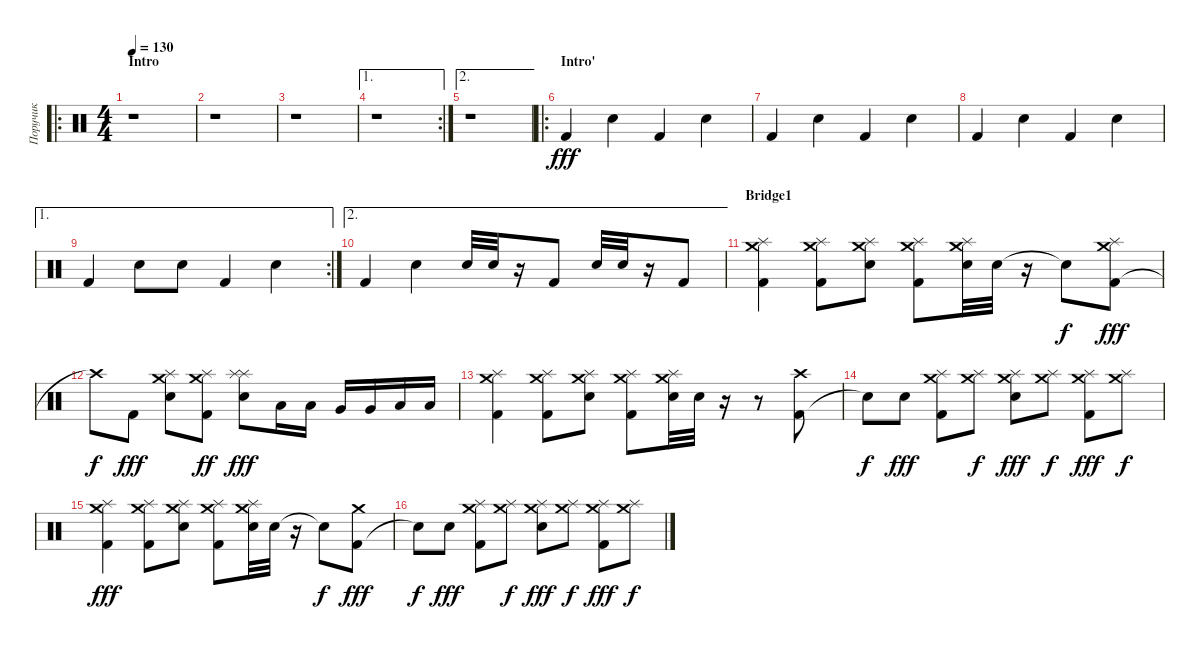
\track ("Поручик" "Поручик") {instrument percussion}
\staff {score}
\articulation defaults
\ro
\ts (4 4)
\section ("" "Intro")
\tempo 130
\clef neutral
\ks c
r.1{dy fff} |
r.1 |
r.1 |
\ae 1
\rc 2
r.1 |
\ae 2
r.1 |
\ro
\section ("" "Intro'")
"Kick (hit) 2".4 "Snare (hit) 2".4 "Kick (hit) 2".4 "Snare (hit) 2".4 |
"Kick (hit) 2".4 "Snare (hit) 2".4 "Kick (hit) 2".4 "Snare (hit) 2".4 |
"Kick (hit) 2".4 "Snare (hit) 2".4 "Kick (hit) 2".4 "Snare (hit) 2".4 |
\ae 1
\rc 2 "Kick (hit) 2".4 "Snare (hit) 2".8 "Snare (hit) 2".8 "Kick (hit) 2".4 "Snare (hit) 2".4
|
\ae 2 "Kick (hit) 2".4 "Snare (hit) 2".4 "Snare (hit) 2".32 "Snare (hit) 2".32
r.16 "Kick (hit) 2".8 "Snare (hit) 2".32 "Snare (hit) 2".32 r.16 "Kick (hit) 2".8 |
\section ("" "Bridge1")
("Kick (hit) 2" "Crash medium (hit)" "Splash (hit)").4 ("Kick (hit) 2" "Crash medium (hit)" "Splash (hit)").8 ("Snare (hit) 2" "Crash medium (hit)" "Splash (hit)").8 ("Kick (hit) 2" "Crash medium (hit)" "Splash (hit)").8 ("Snare (hit) 2" "Crash medium (hit)" "Splash (hit)").32 "Snare (hit) 2".32 r.16 "Snare (hit)"{t}.8{dy f} ("Kick (hit) 2" "Crash medium (hit)" "Splash (hit)").8{dy fff} |
"Crash high (hit)"{t}.8{dy f} "Kick (hit) 2".8{dy fff} ("Snare (hit) 2" "Crash medium (hit)" "Splash (hit)").8 ("Kick (hit) 2" "Crash medium (hit)" "Splash (hit)").8{dy ff} ("Snare (hit) 2" "Splash (hit)" "Splash (hit)").8{dy fff} "Low Tom (hit)".16 "Low Tom (hit)".16 "Very Low Tom (hit)".16 "Very Low Tom (hit)".16 "Low Floor Tom (hit)".16 "Low Floor Tom (hit)".16 |
("Kick (hit) 2" "Crash medium (hit)" "Splash (hit)").4 ("Kick (hit) 2" "Crash medium (hit)" "Splash (hit)").8 ("Snare (hit) 2" "Crash medium (hit)" "Splash (hit)").8 ("Kick (hit) 2" "Crash medium (hit)" "Splash (hit)").8 ("Snare (hit) 2" "Crash medium (hit)" "Splash (hit)").32 "Snare (hit) 2".32 r.16 r.8 ("Kick (hit) 2" "Crash high (hit)").8 |
"Snare (hit)"{t}.8{dy f} "Snare (hit) 2".8{dy fff} ("Kick (hit) 2" "Crash medium (hit)" "Splash (hit)").8 ("Crash medium (hit)" "Splash (hit)").8{dy f} ("Snare (hit) 2" "Crash medium (hit)" "Splash (hit)").8{dy fff} ("Crash medium (hit)" "Splash (hit)").8{dy f} ("Kick (hit) 2" "Crash medium (hit)" "Splash (hit)").8{dy fff} ("Crash medium (hit)" "Splash (hit)").8{dy f} |
("Kick (hit) 2" "Crash medium (hit)" "Splash (hit)").4{dy fff} ("Kick (hit) 2" "Crash medium (hit)" "Splash (hit)").8 ("Snare (hit) 2" "Crash medium (hit)" "Splash (hit)").8 ("Kick (hit) 2" "Crash medium (hit)" "Splash (hit)").8 ("Snare (hit) 2" "Crash medium (hit)" "Splash (hit)").32 "Snare (hit) 2".32 r.16 "Snare (hit)"{t}.8{dy f} ("Kick (hit) 2" "Crash medium (hit)").8{dy fff} |
"Snare (hit)"{t}.8{dy f} "Snare (hit) 2".8{dy fff} ("Kick (hit) 2" "Crash medium (hit)" "Splash (hit)").8 ("Crash medium (hit)" "Splash (hit)").8{dy f} ("Snare (hit) 2" "Crash medium (hit)" "Splash (hit)").8{dy fff} ("Crash medium (hit)" "Splash (hit)").8{dy f} ("Kick (hit) 2" "Crash medium (hit)" "Splash (hit)").8{dy fff} ("Crash medium (hit)" "Splash (hit)").8{dy f}
